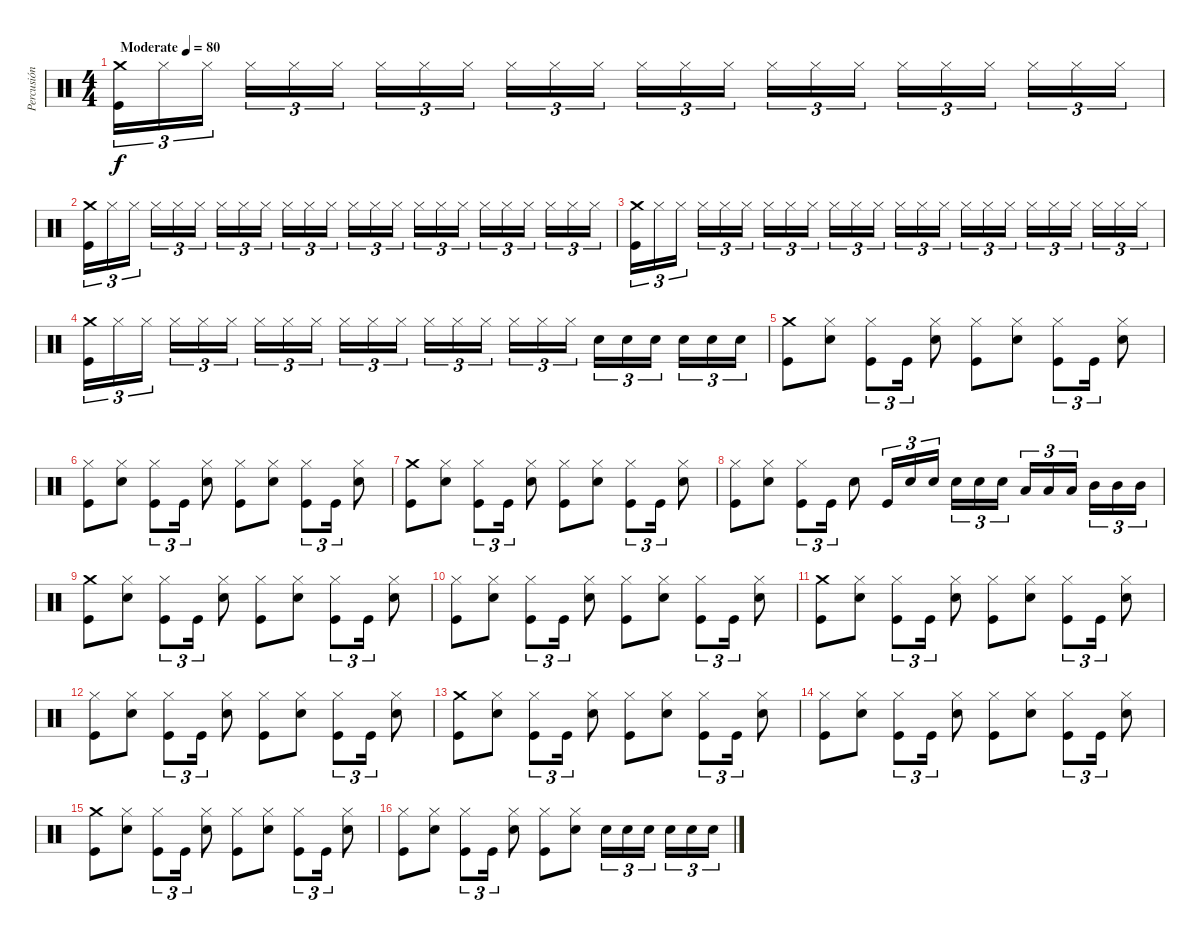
\track ("Percusión con doble bombo" "Percusión ") {mute instrument percussion}
\staff {score}
\articulation defaults
\ts (4 4)
\tempo (80 "Moderate")
\clef neutral
\ks c
("Crash medium (hit)" "Kick (hit)").16{tu (3 2) dy f} "Hi-Hat (closed)".16{tu (3 2)} "Hi-Hat (closed)".16{tu (3 2) beam splitsecondary} "Hi-Hat (closed)".16{tu (3 2)} "Hi-Hat (closed)".16{tu (3 2)} "Hi-Hat (closed)".16{tu (3 2)} "Hi-Hat (closed)".16{tu (3 2)} "Hi-Hat (closed)".16{tu (3 2)} "Hi-Hat (closed)".16{tu (3 2) beam splitsecondary} "Hi-Hat (closed)".16{tu (3 2)} "Hi-Hat (closed)".16{tu (3 2)} "Hi-Hat (closed)".16{tu (3 2)} "Hi-Hat (closed)".16{tu (3 2)} "Hi-Hat (closed)".16{tu (3 2)} "Hi-Hat (closed)".16{tu (3 2) beam splitsecondary} "Hi-Hat (closed)".16{tu (3 2)} "Hi-Hat (closed)".16{tu (3 2)} "Hi-Hat (closed)".16{tu (3 2)} "Hi-Hat (closed)".16{tu (3 2)} "Hi-Hat (closed)".16{tu (3 2)} "Hi-Hat (closed)".16{tu (3 2) beam splitsecondary} "Hi-Hat (closed)".16{tu (3 2)} "Hi-Hat (closed)".16{tu (3 2)} "Hi-Hat (closed)".16{tu (3 2)} |
("Crash medium (hit)" "Kick (hit)").16{tu (3 2)} "Hi-Hat (closed)".16{tu (3 2)} "Hi-Hat (closed)".16{tu (3 2) beam splitsecondary} "Hi-Hat (closed)".16{tu (3 2)} "Hi-Hat (closed)".16{tu (3 2)} "Hi-Hat (closed)".16{tu (3 2)} "Hi-Hat (closed)".16{tu (3 2)} "Hi-Hat (closed)".16{tu (3 2)} "Hi-Hat (closed)".16{tu (3 2) beam splitsecondary} "Hi-Hat (closed)".16{tu (3 2)} "Hi-Hat (closed)".16{tu (3 2)} "Hi-Hat (closed)".16{tu (3 2)} "Hi-Hat (closed)".16{tu (3 2)} "Hi-Hat (closed)".16{tu (3 2)} "Hi-Hat (closed)".16{tu (3 2) beam splitsecondary} "Hi-Hat (closed)".16{tu (3 2)} "Hi-Hat (closed)".16{tu (3 2)} "Hi-Hat (closed)".16{tu (3 2)} "Hi-Hat (closed)".16{tu (3 2)} "Hi-Hat (closed)".16{tu (3 2)} "Hi-Hat (closed)".16{tu (3 2) beam splitsecondary} "Hi-Hat (closed)".16{tu (3 2)} "Hi-Hat (closed)".16{tu (3 2)} "Hi-Hat (closed)".16{tu (3 2)} |
("Crash medium (hit)" "Kick (hit)").16{tu (3 2)} "Hi-Hat (closed)".16{tu (3 2)} "Hi-Hat (closed)".16{tu (3 2) beam splitsecondary} "Hi-Hat (closed)".16{tu (3 2)} "Hi-Hat (closed)".16{tu (3 2)} "Hi-Hat (closed)".16{tu (3 2)} "Hi-Hat (closed)".16{tu (3 2)} "Hi-Hat (closed)".16{tu (3 2)} "Hi-Hat (closed)".16{tu (3 2) beam splitsecondary} "Hi-Hat (closed)".16{tu (3 2)} "Hi-Hat (closed)".16{tu (3 2)} "Hi-Hat (closed)".16{tu (3 2)} "Hi-Hat (closed)".16{tu (3 2)} "Hi-Hat (closed)".16{tu (3 2)} "Hi-Hat (closed)".16{tu (3 2) beam splitsecondary} "Hi-Hat (closed)".16{tu (3 2)} "Hi-Hat (closed)".16{tu (3 2)} "Hi-Hat (closed)".16{tu (3 2)} "Hi-Hat (closed)".16{tu (3 2)} "Hi-Hat (closed)".16{tu (3 2)} "Hi-Hat (closed)".16{tu (3 2) beam splitsecondary} "Hi-Hat (closed)".16{tu (3 2)} "Hi-Hat (closed)".16{tu (3 2)} "Hi-Hat (closed)".16{tu (3 2)} |
("Crash medium (hit)" "Kick (hit)").16{tu (3 2)} "Hi-Hat (closed)".16{tu (3 2)} "Hi-Hat (closed)".16{tu (3 2) beam splitsecondary} "Hi-Hat (closed)".16{tu (3 2)} "Hi-Hat (closed)".16{tu (3 2)} "Hi-Hat (closed)".16{tu (3 2)} "Hi-Hat (closed)".16{tu (3 2)} "Hi-Hat (closed)".16{tu (3 2)} "Hi-Hat (closed)".16{tu (3 2) beam splitsecondary} "Hi-Hat (closed)".16{tu (3 2)} "Hi-Hat (closed)".16{tu (3 2)} "Hi-Hat (closed)".16{tu (3 2)} "Hi-Hat (closed)".16{tu (3 2)} "Hi-Hat (closed)".16{tu (3 2)} "Hi-Hat (closed)".16{tu (3 2) beam splitsecondary} "Hi-Hat (closed)".16{tu (3 2)} "Hi-Hat (closed)".16{tu (3 2)} "Hi-Hat (closed)".16{tu (3 2)} "Snare (hit) 2".16{tu (3 2)} "Snare (hit) 2".16{tu (3 2)} "Snare (hit) 2".16{tu (3 2) beam splitsecondary} "Snare (hit) 2".16{tu (3 2)} "Snare (hit) 2".16{tu (3 2)} "Snare (hit) 2".16{tu (3 2)} |
("Crash medium (hit)" "Kick (hit)").8 ("Hi-Hat (closed)" "Snare (hit) 2").8 ("Hi-Hat (closed)" "Kick (hit)").8{tu (3 2)} "Kick (hit)".16{tu (3 2)} ("Hi-Hat (closed)" "Snare (hit) 2").8 ("Hi-Hat (closed)" "Kick (hit)").8 ("Hi-Hat (closed)" "Snare (hit) 2").8 ("Hi-Hat (closed)" "Kick (hit)").8{tu (3 2)} "Kick (hit)".16{tu (3 2)} ("Hi-Hat (closed)" "Snare (hit) 2").8 |
("Hi-Hat (closed)" "Kick (hit)").8 ("Hi-Hat (closed)" "Snare (hit) 2").8 ("Hi-Hat (closed)" "Kick (hit)").8{tu (3 2)} "Kick (hit)".16{tu (3 2)} ("Hi-Hat (closed)" "Snare (hit) 2").8 ("Hi-Hat (closed)" "Kick (hit)").8 ("Hi-Hat (closed)" "Snare (hit) 2").8 ("Hi-Hat (closed)" "Kick (hit)").8{tu (3 2)} "Kick (hit)".16{tu (3 2)} ("Hi-Hat (closed)" "Snare (hit) 2").8 |
("Crash medium (hit)" "Kick (hit)").8 ("Hi-Hat (closed)" "Snare (hit) 2").8 ("Hi-Hat (closed)" "Kick (hit)").8{tu (3 2)} "Kick (hit)".16{tu (3 2)} ("Hi-Hat (closed)" "Snare (hit) 2").8 ("Hi-Hat (closed)" "Kick (hit)").8 ("Hi-Hat (closed)" "Snare (hit) 2").8 ("Hi-Hat (closed)" "Kick (hit)").8{tu (3 2)} "Kick (hit)".16{tu (3 2)} ("Hi-Hat (closed)" "Snare (hit) 2").8 |
("Hi-Hat (closed)" "Kick (hit)").8 ("Hi-Hat (closed)" "Snare (hit) 2").8 ("Hi-Hat (closed)" "Kick (hit)").8{tu (3 2)} "Kick (hit)".16{tu (3 2)} "Snare (hit) 2".8 "Kick (hit)".16{tu (3 2)} "Snare (hit) 2".16{tu (3 2)} "Snare (hit) 2".16{tu (3 2) beam splitsecondary} "Snare (hit) 2".16{tu (3 2)} "Snare (hit) 2".16{tu (3 2)} "Snare (hit) 2".16{tu (3 2)} "Low Tom (hit)".16{tu (3 2)} "Low Tom (hit)".16{tu (3 2)} "Low Tom (hit)".16{tu (3 2) beam splitsecondary} "Mid Tom (hit)".16{tu (3 2)} "Mid Tom (hit)".16{tu (3 2)} "Mid Tom (hit)".16{tu (3 2)} |
("Crash medium (hit)" "Kick (hit)").8 ("Hi-Hat (closed)" "Snare (hit) 2").8 ("Hi-Hat (closed)" "Kick (hit)").8{tu (3 2)} "Kick (hit)".16{tu (3 2)} ("Hi-Hat (closed)" "Snare (hit) 2").8 ("Hi-Hat (closed)" "Kick (hit)").8 ("Hi-Hat (closed)" "Snare (hit) 2").8 ("Hi-Hat (closed)" "Kick (hit)").8{tu (3 2)} "Kick (hit)".16{tu (3 2)} ("Hi-Hat (closed)" "Snare (hit) 2").8 |
("Hi-Hat (closed)" "Kick (hit)").8 ("Hi-Hat (closed)" "Snare (hit) 2").8 ("Hi-Hat (closed)" "Kick (hit)").8{tu (3 2)} "Kick (hit)".16{tu (3 2)} ("Hi-Hat (closed)" "Snare (hit) 2").8 ("Hi-Hat (closed)" "Kick (hit)").8 ("Hi-Hat (closed)" "Snare (hit) 2").8 ("Hi-Hat (closed)" "Kick (hit)").8{tu (3 2)} "Kick (hit)".16{tu (3 2)} ("Hi-Hat (closed)" "Snare (hit) 2").8 |
("Crash medium (hit)" "Kick (hit)").8 ("Hi-Hat (closed)" "Snare (hit) 2").8 ("Hi-Hat (closed)" "Kick (hit)").8{tu (3 2)} "Kick (hit)".16{tu (3 2)} ("Hi-Hat (closed)" "Snare (hit) 2").8 ("Hi-Hat (closed)" "Kick (hit)").8 ("Hi-Hat (closed)" "Snare (hit) 2").8 ("Hi-Hat (closed)" "Kick (hit)").8{tu (3 2)} "Kick (hit)".16{tu (3 2)} ("Hi-Hat (closed)" "Snare (hit) 2").8 |
("Hi-Hat (closed)" "Kick (hit)").8 ("Hi-Hat (closed)" "Snare (hit) 2").8 ("Hi-Hat (closed)" "Kick (hit)").8{tu (3 2)} "Kick (hit)".16{tu (3 2)} ("Hi-Hat (closed)" "Snare (hit) 2").8 ("Hi-Hat (closed)" "Kick (hit)").8 ("Hi-Hat (closed)" "Snare (hit) 2").8 ("Hi-Hat (closed)" "Kick (hit)").8{tu (3 2)} "Kick (hit)".16{tu (3 2)} ("Hi-Hat (closed)" "Snare (hit) 2").8 |
("Crash medium (hit)" "Kick (hit)").8 ("Hi-Hat (closed)" "Snare (hit) 2").8 ("Hi-Hat (closed)" "Kick (hit)").8{tu (3 2)} "Kick (hit)".16{tu (3 2)} ("Hi-Hat (closed)" "Snare (hit) 2").8 ("Hi-Hat (closed)" "Kick (hit)").8 ("Hi-Hat (closed)" "Snare (hit) 2").8 ("Hi-Hat (closed)" "Kick (hit)").8{tu (3 2)} "Kick (hit)".16{tu (3 2)} ("Hi-Hat (closed)" "Snare (hit) 2").8 |
("Hi-Hat (closed)" "Kick (hit)").8 ("Hi-Hat (closed)" "Snare (hit) 2").8 ("Hi-Hat (closed)" "Kick (hit)").8{tu (3 2)} "Kick (hit)".16{tu (3 2)} ("Hi-Hat (closed)" "Snare (hit) 2").8 ("Hi-Hat (closed)" "Kick (hit)").8 ("Hi-Hat (closed)" "Snare (hit) 2").8 ("Hi-Hat (closed)" "Kick (hit)").8{tu (3 2)} "Kick (hit)".16{tu (3 2)} ("Hi-Hat (closed)" "Snare (hit) 2").8 |
("Crash medium (hit)" "Kick (hit)").8 ("Hi-Hat (closed)" "Snare (hit) 2").8 ("Hi-Hat (closed)" "Kick (hit)").8{tu (3 2)} "Kick (hit)".16{tu (3 2)} ("Hi-Hat (closed)" "Snare (hit) 2").8 ("Hi-Hat (closed)" "Kick (hit)").8 ("Hi-Hat (closed)" "Snare (hit) 2").8 ("Hi-Hat (closed)" "Kick (hit)").8{tu (3 2)} "Kick (hit)".16{tu (3 2)} ("Hi-Hat (closed)" "Snare (hit) 2").8 |
("Hi-Hat (closed)" "Kick (hit)").8 ("Hi-Hat (closed)" "Snare (hit) 2").8 ("Hi-Hat (closed)" "Kick (hit)").8{tu (3 2)} "Kick (hit)".16{tu (3 2)} ("Hi-Hat (closed)" "Snare (hit) 2").8 ("Hi-Hat (closed)" "Kick (hit)").8 ("Hi-Hat (closed)" "Snare (hit) 2").8 "Snare (hit) 2".16{tu (3 2)} "Snare (hit) 2".16{tu (3 2)} "Snare (hit) 2".16{tu (3 2) beam splitsecondary} "Snare (hit) 2".16{tu (3 2)} "Snare (hit) 2".16{tu (3 2)} "Snare (hit) 2".16{tu (3 2)}
